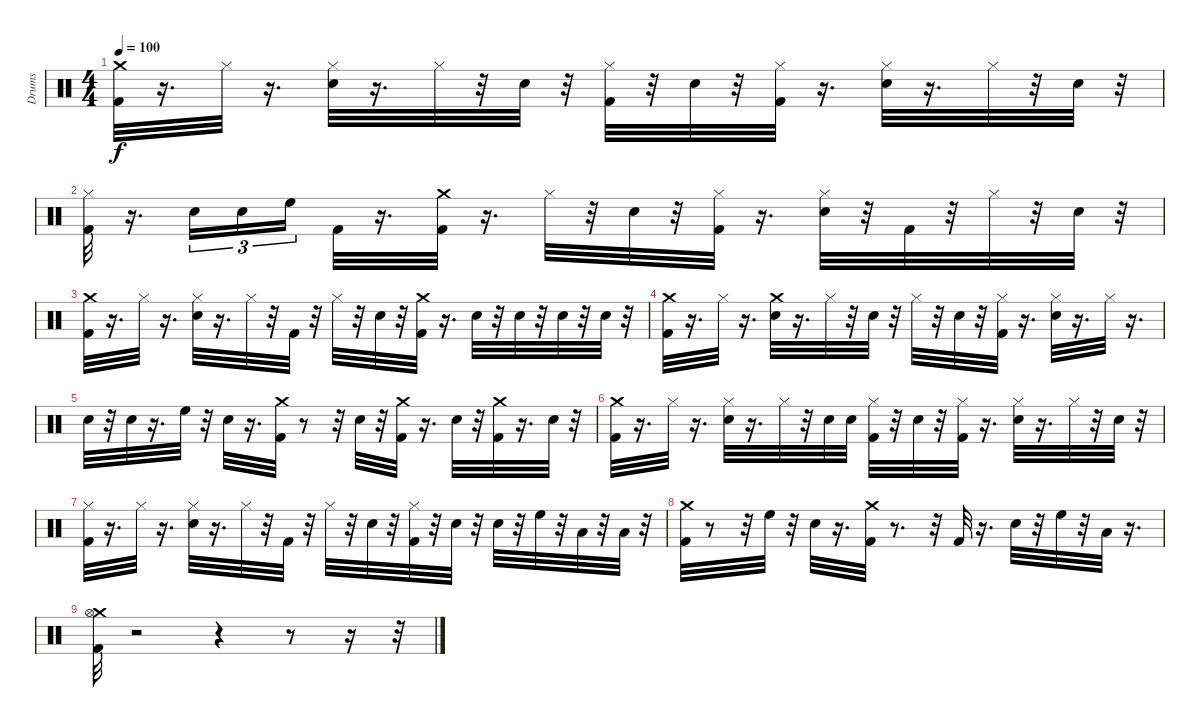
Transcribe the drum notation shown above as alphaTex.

\track ("Drums" "Drums") {instrument percussion}
\staff {score}
\articulation defaults
\ts (4 4)
\tempo 100
\clef neutral
\ks c
("Kick (hit) 2" "Crash medium (hit)").32{dy f} r.16{d} "Hi-Hat (closed)".32 r.16{d} ("Hi-Hat (closed)" "Snare (hit) 2").32 r.16{d} "Hi-Hat (closed)".32 r.32 "Snare (hit) 2".32 r.32 ("Hi-Hat (closed)" "Kick (hit) 2").32 r.32 "Snare (hit) 2".32 r.32 ("Hi-Hat (closed)" "Kick (hit) 2").32 r.16{d} ("Hi-Hat (closed)" "Snare (hit) 2").32 r.16{d} "Hi-Hat (closed)".32 r.32 "Snare (hit) 2".32 r.32 |
("Kick (hit) 2" "Hi-Hat (closed)").32 r.16{d} "Snare (hit) 2".16{tu (3 2)} "Electric Snare (hit)".16{tu (3 2)} "High Floor Tom (hit)".16{tu (3 2)} "Kick (hit) 2".32 r.16{d} ("Kick (hit) 2" "Crash medium (hit)").32 r.16{d} "Hi-Hat (closed)".32 r.32 "Snare (hit) 2".32 r.32 ("Kick (hit) 2" "Hi-Hat (closed)").32 r.16{d} ("Hi-Hat (closed)" "Snare (hit) 2").32 r.32 "Kick (hit) 2".32 r.32 "Hi-Hat (closed)".32 r.32 "Snare (hit) 2".32 r.32 |
("Kick (hit) 2" "Crash medium (hit)").32 r.16{d} "Hi-Hat (closed)".32 r.16{d} ("Hi-Hat (closed)" "Snare (hit) 2").32 r.16{d} "Hi-Hat (closed)".32 r.32 "Kick (hit) 2".32 r.32 "Hi-Hat (closed)".32 r.32 "Snare (hit) 2".32 r.32 ("Crash medium (hit)" "Kick (hit) 2").32 r.16{d} "Snare (hit) 2".32 r.32 "Snare (hit) 2".32 r.32 "Snare (hit) 2".32 r.32 "Snare (hit) 2".32 r.32 |
("Kick (hit) 2" "Crash medium (hit)").32 r.16{d} "Hi-Hat (closed)".32 r.16{d} ("Crash medium (hit)" "Snare (hit) 2").32 r.16{d} "Hi-Hat (closed)".32 r.32 "Snare (hit) 2".32 r.32 "Hi-Hat (closed)".32 r.32 "Snare (hit) 2".32 r.32 ("Kick (hit) 2" "Hi-Hat (closed)").32 r.16{d} ("Hi-Hat (closed)" "Snare (hit) 2").32 r.16{d} "Hi-Hat (closed)".32 r.16{d} |
"Snare (hit) 2".32 r.32 "Electric Snare (hit)".32 r.16{d} "High Floor Tom (hit)".32 r.32 "Snare (hit) 2".32 r.16{d} ("Crash medium (hit)" "Kick (hit) 2").32 r.8 r.32 "Snare (hit) 2".32 r.32 ("Crash medium (hit)" "Kick (hit) 2").32 r.16{d} "Snare (hit) 2".32 r.32 ("Kick (hit) 2" "Crash medium (hit)").32 r.16{d} "Snare (hit) 2".32 r.32 |
("Kick (hit) 2" "Crash medium (hit)").32 r.16{d} "Hi-Hat (closed)".32 r.16{d} ("Hi-Hat (closed)" "Snare (hit) 2").32 r.16{d} "Hi-Hat (closed)".32 r.32 "Snare (hit) 2".32 "Snare (hit) 2".32 ("Kick (hit) 2" "Hi-Hat (closed)").32 r.32 "Snare (hit) 2".32 r.32 ("Kick (hit) 2" "Hi-Hat (closed)").32 r.16{d} ("Hi-Hat (closed)" "Snare (hit) 2").32 r.16{d} "Hi-Hat (closed)".32 r.32 "Snare (hit) 2".32 r.32 |
("Kick (hit) 2" "Hi-Hat (closed)").32 r.16{d} "Hi-Hat (closed)".32 r.16{d} ("Hi-Hat (closed)" "Snare (hit) 2").32 r.16{d} "Hi-Hat (closed)".32 r.32 "Kick (hit) 2".32 r.32 "Hi-Hat (closed)".32 r.32 "Snare (hit) 2".32 r.32 ("Kick (hit) 2" "Hi-Hat (closed)").32 r.32 "Snare (hit) 2".32 r.32 "Snare (hit) 2".32 r.32 "High Floor Tom (hit)".32 r.32 "Low Tom (hit)".32 r.32 "Low Tom (hit)".32 r.32 |
("Kick (hit) 2" "Crash medium (hit)").32 r.8 r.32 "High Floor Tom (hit)".32 r.32 "Snare (hit) 2".32 r.16{d} ("Kick (hit) 2" "Crash medium (hit)").32 r.8{d} r.32 "Kick (hit) 2".32 r.16{d} "Snare (hit) 2".32 r.32 "High Floor Tom (hit)".32 r.32 "Low Tom (hit)".32 r.16{d} |
("Kick (hit) 2" "Crash medium (hit)" "Hi-Hat (open)").32 r.2 r.4 r.8 r.16 r.32
